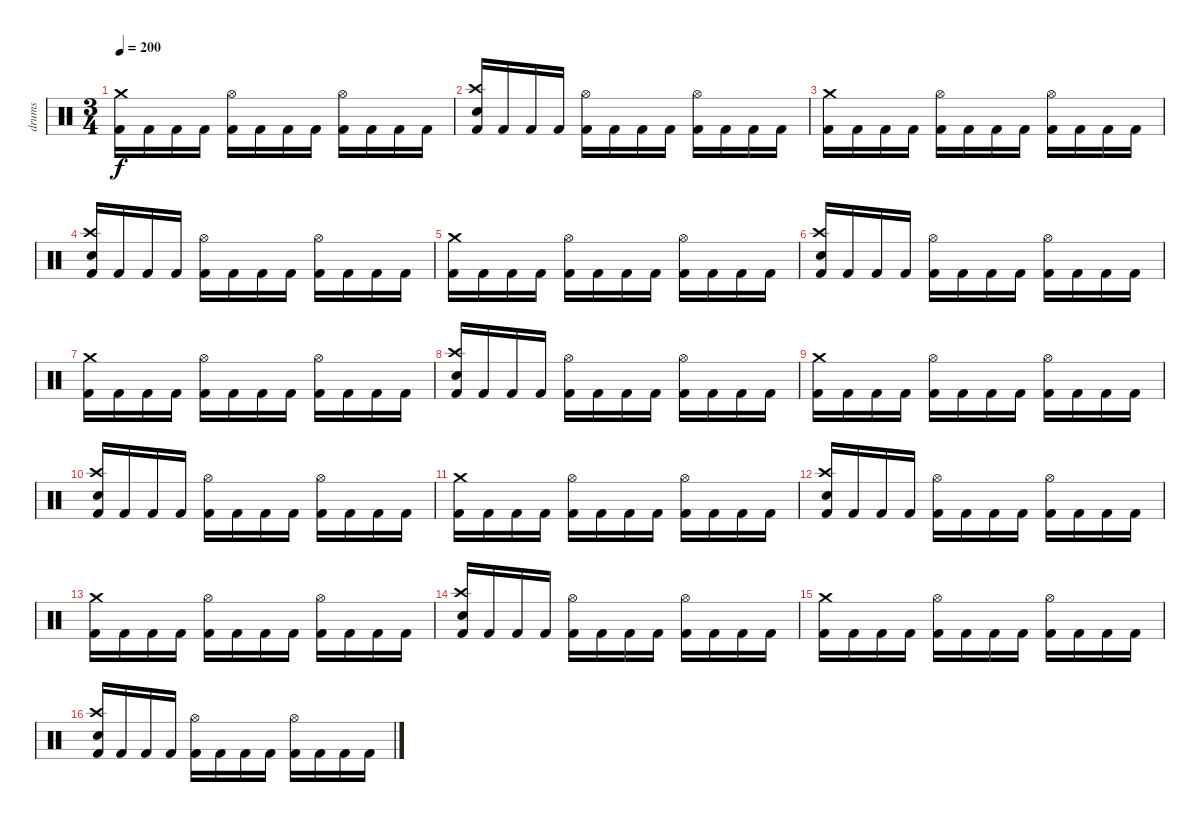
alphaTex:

\track ("drums" "drums") {instrument percussion}
\staff {score}
\articulation defaults
\ts (3 4)
\tempo 200
\clef neutral
\ks c
("Crash medium (hit)" "Kick (hit) 2").16{dy f} "Kick (hit) 2".16 "Kick (hit) 2".16 "Kick (hit) 2".16 ("Hi-Hat (open)" "Kick (hit) 2").16 "Kick (hit) 2".16 "Kick (hit) 2".16 "Kick (hit) 2".16 ("Hi-Hat (open)" "Kick (hit) 2").16 "Kick (hit) 2".16 "Kick (hit) 2".16 "Kick (hit) 2".16 |
("Crash high (hit)" "Snare (hit) 2" "Kick (hit) 2").16 "Kick (hit) 2".16 "Kick (hit) 2".16 "Kick (hit) 2".16 ("Hi-Hat (open)" "Kick (hit) 2").16 "Kick (hit) 2".16 "Kick (hit) 2".16 "Kick (hit) 2".16 ("Hi-Hat (open)" "Kick (hit) 2").16 "Kick (hit) 2".16 "Kick (hit) 2".16 "Kick (hit) 2".16 |
("Crash medium (hit)" "Kick (hit) 2").16 "Kick (hit) 2".16 "Kick (hit) 2".16 "Kick (hit) 2".16 ("Hi-Hat (open)" "Kick (hit) 2").16 "Kick (hit) 2".16 "Kick (hit) 2".16 "Kick (hit) 2".16 ("Hi-Hat (open)" "Kick (hit) 2").16 "Kick (hit) 2".16 "Kick (hit) 2".16 "Kick (hit) 2".16 |
("Crash high (hit)" "Snare (hit) 2" "Kick (hit) 2").16 "Kick (hit) 2".16 "Kick (hit) 2".16 "Kick (hit) 2".16 ("Hi-Hat (open)" "Kick (hit) 2").16 "Kick (hit) 2".16 "Kick (hit) 2".16 "Kick (hit) 2".16 ("Hi-Hat (open)" "Kick (hit) 2").16 "Kick (hit) 2".16 "Kick (hit) 2".16 "Kick (hit) 2".16 |
("Crash medium (hit)" "Kick (hit) 2").16 "Kick (hit) 2".16 "Kick (hit) 2".16 "Kick (hit) 2".16 ("Hi-Hat (open)" "Kick (hit) 2").16 "Kick (hit) 2".16 "Kick (hit) 2".16 "Kick (hit) 2".16 ("Hi-Hat (open)" "Kick (hit) 2").16 "Kick (hit) 2".16 "Kick (hit) 2".16 "Kick (hit) 2".16 |
("Crash high (hit)" "Snare (hit) 2" "Kick (hit) 2").16 "Kick (hit) 2".16 "Kick (hit) 2".16 "Kick (hit) 2".16 ("Hi-Hat (open)" "Kick (hit) 2").16 "Kick (hit) 2".16 "Kick (hit) 2".16 "Kick (hit) 2".16 ("Hi-Hat (open)" "Kick (hit) 2").16 "Kick (hit) 2".16 "Kick (hit) 2".16 "Kick (hit) 2".16 |
("Crash medium (hit)" "Kick (hit) 2").16 "Kick (hit) 2".16 "Kick (hit) 2".16 "Kick (hit) 2".16 ("Hi-Hat (open)" "Kick (hit) 2").16 "Kick (hit) 2".16 "Kick (hit) 2".16 "Kick (hit) 2".16 ("Hi-Hat (open)" "Kick (hit) 2").16 "Kick (hit) 2".16 "Kick (hit) 2".16 "Kick (hit) 2".16 |
("Crash high (hit)" "Snare (hit) 2" "Kick (hit) 2").16 "Kick (hit) 2".16 "Kick (hit) 2".16 "Kick (hit) 2".16 ("Hi-Hat (open)" "Kick (hit) 2").16 "Kick (hit) 2".16 "Kick (hit) 2".16 "Kick (hit) 2".16 ("Hi-Hat (open)" "Kick (hit) 2").16 "Kick (hit) 2".16 "Kick (hit) 2".16 "Kick (hit) 2".16 |
("Crash medium (hit)" "Kick (hit) 2").16 "Kick (hit) 2".16 "Kick (hit) 2".16 "Kick (hit) 2".16 ("Hi-Hat (open)" "Kick (hit) 2").16 "Kick (hit) 2".16 "Kick (hit) 2".16 "Kick (hit) 2".16 ("Hi-Hat (open)" "Kick (hit) 2").16 "Kick (hit) 2".16 "Kick (hit) 2".16 "Kick (hit) 2".16 |
("Crash high (hit)" "Snare (hit) 2" "Kick (hit) 2").16 "Kick (hit) 2".16 "Kick (hit) 2".16 "Kick (hit) 2".16 ("Hi-Hat (open)" "Kick (hit) 2").16 "Kick (hit) 2".16 "Kick (hit) 2".16 "Kick (hit) 2".16 ("Hi-Hat (open)" "Kick (hit) 2").16 "Kick (hit) 2".16 "Kick (hit) 2".16 "Kick (hit) 2".16 |
("Crash medium (hit)" "Kick (hit) 2").16 "Kick (hit) 2".16 "Kick (hit) 2".16 "Kick (hit) 2".16 ("Hi-Hat (open)" "Kick (hit) 2").16 "Kick (hit) 2".16 "Kick (hit) 2".16 "Kick (hit) 2".16 ("Hi-Hat (open)" "Kick (hit) 2").16 "Kick (hit) 2".16 "Kick (hit) 2".16 "Kick (hit) 2".16 |
("Crash high (hit)" "Snare (hit) 2" "Kick (hit) 2").16 "Kick (hit) 2".16 "Kick (hit) 2".16 "Kick (hit) 2".16 ("Hi-Hat (open)" "Kick (hit) 2").16 "Kick (hit) 2".16 "Kick (hit) 2".16 "Kick (hit) 2".16 ("Hi-Hat (open)" "Kick (hit) 2").16 "Kick (hit) 2".16 "Kick (hit) 2".16 "Kick (hit) 2".16 |
("Crash medium (hit)" "Kick (hit) 2").16 "Kick (hit) 2".16 "Kick (hit) 2".16 "Kick (hit) 2".16 ("Hi-Hat (open)" "Kick (hit) 2").16 "Kick (hit) 2".16 "Kick (hit) 2".16 "Kick (hit) 2".16 ("Hi-Hat (open)" "Kick (hit) 2").16 "Kick (hit) 2".16 "Kick (hit) 2".16 "Kick (hit) 2".16 |
("Crash high (hit)" "Snare (hit) 2" "Kick (hit) 2").16 "Kick (hit) 2".16 "Kick (hit) 2".16 "Kick (hit) 2".16 ("Hi-Hat (open)" "Kick (hit) 2").16 "Kick (hit) 2".16 "Kick (hit) 2".16 "Kick (hit) 2".16 ("Hi-Hat (open)" "Kick (hit) 2").16 "Kick (hit) 2".16 "Kick (hit) 2".16 "Kick (hit) 2".16 |
("Crash medium (hit)" "Kick (hit) 2").16 "Kick (hit) 2".16 "Kick (hit) 2".16 "Kick (hit) 2".16 ("Hi-Hat (open)" "Kick (hit) 2").16 "Kick (hit) 2".16 "Kick (hit) 2".16 "Kick (hit) 2".16 ("Hi-Hat (open)" "Kick (hit) 2").16 "Kick (hit) 2".16 "Kick (hit) 2".16 "Kick (hit) 2".16 |
("Crash high (hit)" "Snare (hit) 2" "Kick (hit) 2").16 "Kick (hit) 2".16 "Kick (hit) 2".16 "Kick (hit) 2".16 ("Hi-Hat (open)" "Kick (hit) 2").16 "Kick (hit) 2".16 "Kick (hit) 2".16 "Kick (hit) 2".16 ("Hi-Hat (open)" "Kick (hit) 2").16 "Kick (hit) 2".16 "Kick (hit) 2".16 "Kick (hit) 2".16
